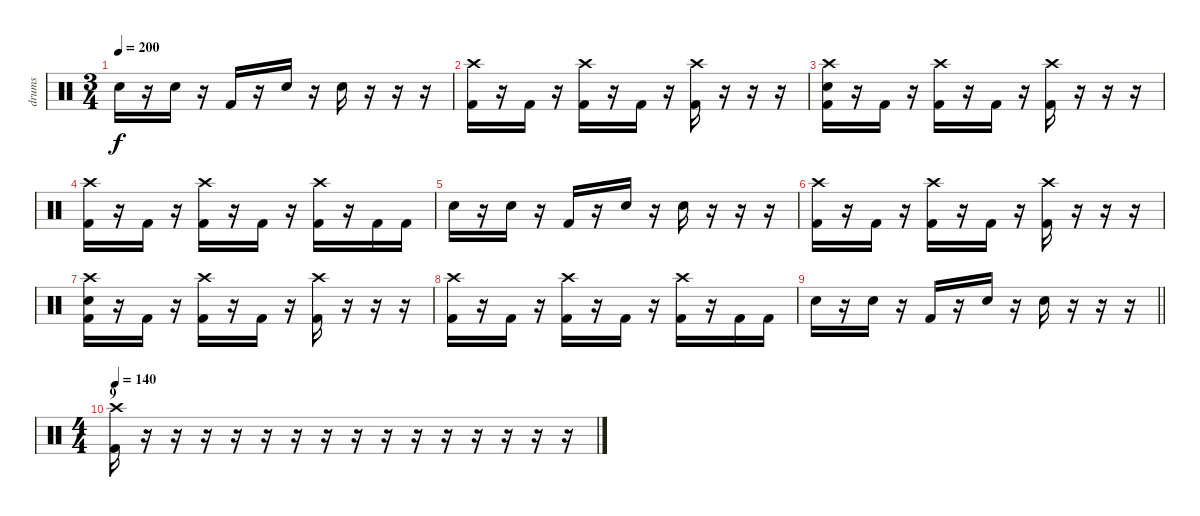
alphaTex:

\track ("drums" "drums") {instrument percussion}
\staff {score}
\articulation defaults
\ts (3 4)
\tempo 200
\clef neutral
\ks c "Electric Snare (hit)".16{dy f}
r.16 "Electric Snare (hit)".16 r.16 "Kick (hit) 2".16 r.16 "Electric Snare (hit)".16 r.16 "Electric Snare (hit)".16 r.16 r.16 r.16 |
("Kick (hit) 2" "Crash high (hit)").16 r.16 "Kick (hit) 2".16 r.16 ("Kick (hit) 2" "Crash high (hit)").16 r.16 "Kick (hit) 2".16 r.16 ("Kick (hit) 2" "Crash high (hit)").16 r.16 r.16 r.16 |
("Kick (hit) 2" "Crash high (hit)" "Electric Snare (hit)").16 r.16 "Kick (hit) 2".16 r.16 ("Kick (hit) 2" "Crash high (hit)").16 r.16 "Kick (hit) 2".16 r.16 ("Kick (hit) 2" "Crash high (hit)").16 r.16 r.16 r.16 |
("Kick (hit) 2" "Crash high (hit)").16 r.16 "Kick (hit) 2".16 r.16 ("Kick (hit) 2" "Crash high (hit)").16 r.16 "Kick (hit) 2".16 r.16 ("Kick (hit) 2" "Crash high (hit)").16 r.16 "Kick (hit) 2".16 "Kick (hit) 2".16 |
"Electric Snare (hit)".16 r.16 "Electric Snare (hit)".16 r.16 "Kick (hit) 2".16 r.16 "Electric Snare (hit)".16 r.16 "Electric Snare (hit)".16 r.16 r.16 r.16 |
("Kick (hit) 2" "Crash high (hit)").16 r.16 "Kick (hit) 2".16 r.16 ("Kick (hit) 2" "Crash high (hit)").16 r.16 "Kick (hit) 2".16 r.16 ("Kick (hit) 2" "Crash high (hit)").16 r.16 r.16 r.16 |
("Kick (hit) 2" "Crash high (hit)" "Electric Snare (hit)").16 r.16 "Kick (hit) 2".16 r.16 ("Kick (hit) 2" "Crash high (hit)").16 r.16 "Kick (hit) 2".16 r.16 ("Kick (hit) 2" "Crash high (hit)").16 r.16 r.16 r.16 |
("Kick (hit) 2" "Crash high (hit)").16 r.16 "Kick (hit) 2".16 r.16 ("Kick (hit) 2" "Crash high (hit)").16 r.16 "Kick (hit) 2".16 r.16 ("Kick (hit) 2" "Crash high (hit)").16 r.16 "Kick (hit) 2".16 "Kick (hit) 2".16 |
\barLineRight lightlight "Electric Snare (hit)".16
r.16 "Electric Snare (hit)".16 r.16 "Kick (hit) 2".16 r.16 "Electric Snare (hit)".16 r.16 "Electric Snare (hit)".16 r.16 r.16 r.16 |
\ts (4 4)
\section ("" "9")
\tempo 140
("Kick (hit) 2" "Crash high (hit)").16 r.16 r.16 r.16 r.16 r.16 r.16 r.16 r.16 r.16 r.16 r.16 r.16 r.16 r.16 r.16
